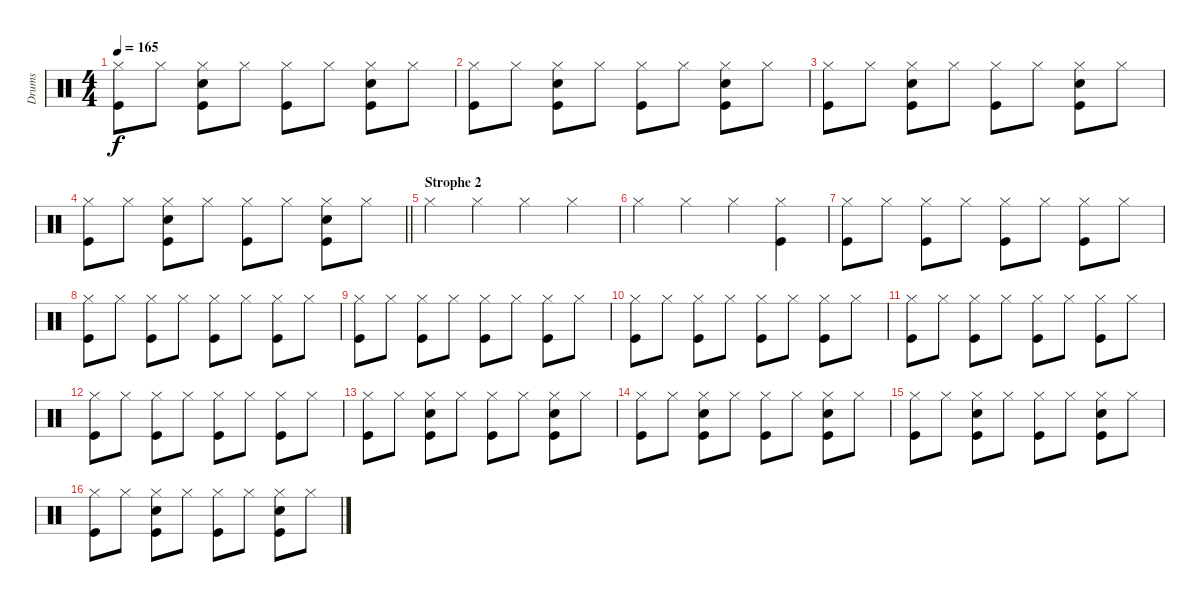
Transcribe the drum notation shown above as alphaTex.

\track ("Drums" "Drums") {instrument percussion}
\staff {score}
\articulation defaults
\ts (4 4)
\tempo 165
\clef neutral
\ks c
("Hi-Hat (closed)" "Kick (hit)").8{dy f} "Hi-Hat (closed)".8 ("Hi-Hat (closed)" "Kick (hit)" "Snare (hit) 2").8 "Hi-Hat (closed)".8 ("Hi-Hat (closed)" "Kick (hit)").8 "Hi-Hat (closed)".8 ("Hi-Hat (closed)" "Kick (hit)" "Snare (hit) 2").8 "Hi-Hat (closed)".8 |
("Hi-Hat (closed)" "Kick (hit)").8 "Hi-Hat (closed)".8 ("Hi-Hat (closed)" "Kick (hit)" "Snare (hit) 2").8 "Hi-Hat (closed)".8 ("Hi-Hat (closed)" "Kick (hit)").8 "Hi-Hat (closed)".8 ("Hi-Hat (closed)" "Kick (hit)" "Snare (hit) 2").8 "Hi-Hat (closed)".8 |
("Hi-Hat (closed)" "Kick (hit)").8 "Hi-Hat (closed)".8 ("Hi-Hat (closed)" "Kick (hit)" "Snare (hit) 2").8 "Hi-Hat (closed)".8 ("Hi-Hat (closed)" "Kick (hit)").8 "Hi-Hat (closed)".8 ("Hi-Hat (closed)" "Kick (hit)" "Snare (hit) 2").8 "Hi-Hat (closed)".8 |
\barLineRight lightlight
("Hi-Hat (closed)" "Kick (hit)").8 "Hi-Hat (closed)".8 ("Hi-Hat (closed)" "Kick (hit)" "Snare (hit) 2").8 "Hi-Hat (closed)".8 ("Hi-Hat (closed)" "Kick (hit)").8 "Hi-Hat (closed)".8 ("Hi-Hat (closed)" "Kick (hit)" "Snare (hit) 2").8 "Hi-Hat (closed)".8 |
\section ("" "Strophe 2")
"Hi-Hat (closed)".4 "Hi-Hat (closed)".4 "Hi-Hat (closed)".4 "Hi-Hat (closed)".4 |
"Hi-Hat (closed)".4 "Hi-Hat (closed)".4 "Hi-Hat (closed)".4 ("Hi-Hat (closed)" "Kick (hit)").4 |
("Hi-Hat (closed)" "Kick (hit)").8 "Hi-Hat (closed)".8 ("Hi-Hat (closed)" "Kick (hit)").8 "Hi-Hat (closed)".8 ("Hi-Hat (closed)" "Kick (hit)").8 "Hi-Hat (closed)".8 ("Hi-Hat (closed)" "Kick (hit)").8 "Hi-Hat (closed)".8 |
("Hi-Hat (closed)" "Kick (hit)").8 "Hi-Hat (closed)".8 ("Hi-Hat (closed)" "Kick (hit)").8 "Hi-Hat (closed)".8 ("Hi-Hat (closed)" "Kick (hit)").8 "Hi-Hat (closed)".8 ("Hi-Hat (closed)" "Kick (hit)").8 "Hi-Hat (closed)".8 |
("Hi-Hat (closed)" "Kick (hit)").8 "Hi-Hat (closed)".8 ("Hi-Hat (closed)" "Kick (hit)").8 "Hi-Hat (closed)".8 ("Hi-Hat (closed)" "Kick (hit)").8 "Hi-Hat (closed)".8 ("Hi-Hat (closed)" "Kick (hit)").8 "Hi-Hat (closed)".8 |
("Hi-Hat (closed)" "Kick (hit)").8 "Hi-Hat (closed)".8 ("Hi-Hat (closed)" "Kick (hit)").8 "Hi-Hat (closed)".8 ("Hi-Hat (closed)" "Kick (hit)").8 "Hi-Hat (closed)".8 ("Hi-Hat (closed)" "Kick (hit)").8 "Hi-Hat (closed)".8 |
("Hi-Hat (closed)" "Kick (hit)").8 "Hi-Hat (closed)".8 ("Hi-Hat (closed)" "Kick (hit)").8 "Hi-Hat (closed)".8 ("Hi-Hat (closed)" "Kick (hit)").8 "Hi-Hat (closed)".8 ("Hi-Hat (closed)" "Kick (hit)").8 "Hi-Hat (closed)".8 |
("Hi-Hat (closed)" "Kick (hit)").8 "Hi-Hat (closed)".8 ("Hi-Hat (closed)" "Kick (hit)").8 "Hi-Hat (closed)".8 ("Hi-Hat (closed)" "Kick (hit)").8 "Hi-Hat (closed)".8 ("Hi-Hat (closed)" "Kick (hit)").8 "Hi-Hat (closed)".8 |
("Hi-Hat (closed)" "Kick (hit)").8 "Hi-Hat (closed)".8 ("Hi-Hat (closed)" "Kick (hit)" "Snare (hit) 2").8 "Hi-Hat (closed)".8 ("Hi-Hat (closed)" "Kick (hit)").8 "Hi-Hat (closed)".8 ("Hi-Hat (closed)" "Kick (hit)" "Snare (hit) 2").8 "Hi-Hat (closed)".8 |
("Hi-Hat (closed)" "Kick (hit)").8 "Hi-Hat (closed)".8 ("Hi-Hat (closed)" "Kick (hit)" "Snare (hit) 2").8 "Hi-Hat (closed)".8 ("Hi-Hat (closed)" "Kick (hit)").8 "Hi-Hat (closed)".8 ("Hi-Hat (closed)" "Kick (hit)" "Snare (hit) 2").8 "Hi-Hat (closed)".8 |
("Hi-Hat (closed)" "Kick (hit)").8 "Hi-Hat (closed)".8 ("Hi-Hat (closed)" "Kick (hit)" "Snare (hit) 2").8 "Hi-Hat (closed)".8 ("Hi-Hat (closed)" "Kick (hit)").8 "Hi-Hat (closed)".8 ("Hi-Hat (closed)" "Kick (hit)" "Snare (hit) 2").8 "Hi-Hat (closed)".8 |
("Hi-Hat (closed)" "Kick (hit)").8 "Hi-Hat (closed)".8 ("Hi-Hat (closed)" "Kick (hit)" "Snare (hit) 2").8 "Hi-Hat (closed)".8 ("Hi-Hat (closed)" "Kick (hit)").8 "Hi-Hat (closed)".8 ("Hi-Hat (closed)" "Kick (hit)" "Snare (hit) 2").8 "Hi-Hat (closed)".8
